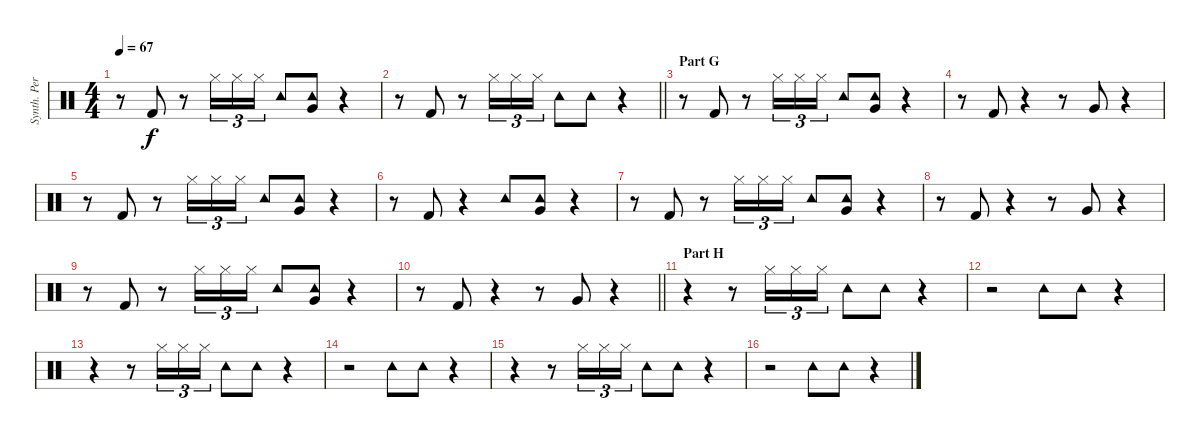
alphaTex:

\track ("Synth. Percussion" "Synth. Per") {instrument percussion}
\staff {score}
\articulation defaults
\ts (4 4)
\tempo 67
\clef neutral
\ks c
r.8{dy f} "Kick (hit) 2".8 r.8 "Hi-Hat (closed)".16{tu (3 2)} "Hi-Hat (closed)".16{tu (3 2)} "Hi-Hat (closed)".16{tu (3 2)} "Tambourine (hit)".8 ("Tambourine (hit)" "Very Low Tom (hit)").8 r.4 |
\barLineRight lightlight
r.8 "Kick (hit) 2".8 r.8 "Hi-Hat (closed)".16{tu (3 2)} "Hi-Hat (closed)".16{tu (3 2)} "Hi-Hat (closed)".16{tu (3 2)} "Tambourine (hit)".8 "Tambourine (hit)".8 r.4 |
\section ("" "Part G")
r.8 "Kick (hit) 2".8 r.8 "Hi-Hat (closed)".16{tu (3 2)} "Hi-Hat (closed)".16{tu (3 2)} "Hi-Hat (closed)".16{tu (3 2)} "Tambourine (hit)".8 ("Tambourine (hit)" "Very Low Tom (hit)").8 r.4 |
r.8 "Kick (hit) 2".8 r.4 r.8 "Very Low Tom (hit)".8 r.4 |
r.8 "Kick (hit) 2".8 r.8 "Hi-Hat (closed)".16{tu (3 2)} "Hi-Hat (closed)".16{tu (3 2)} "Hi-Hat (closed)".16{tu (3 2)} "Tambourine (hit)".8 ("Tambourine (hit)" "Very Low Tom (hit)").8 r.4 |
r.8 "Kick (hit) 2".8 r.4 "Tambourine (hit)".8 ("Tambourine (hit)" "Very Low Tom (hit)").8 r.4 |
r.8 "Kick (hit) 2".8 r.8 "Hi-Hat (closed)".16{tu (3 2)} "Hi-Hat (closed)".16{tu (3 2)} "Hi-Hat (closed)".16{tu (3 2)} "Tambourine (hit)".8 ("Tambourine (hit)" "Very Low Tom (hit)").8 r.4 |
r.8 "Kick (hit) 2".8 r.4 r.8 "Very Low Tom (hit)".8 r.4 |
r.8 "Kick (hit) 2".8 r.8 "Hi-Hat (closed)".16{tu (3 2)} "Hi-Hat (closed)".16{tu (3 2)} "Hi-Hat (closed)".16{tu (3 2)} "Tambourine (hit)".8 ("Tambourine (hit)" "Very Low Tom (hit)").8 r.4 |
\barLineRight lightlight
r.8 "Kick (hit) 2".8 r.4 r.8 "Very Low Tom (hit)".8 r.4 |
\section ("" "Part H")
r.4 r.8 "Hi-Hat (closed)".16{tu (3 2)} "Hi-Hat (closed)".16{tu (3 2)} "Hi-Hat (closed)".16{tu (3 2)} "Tambourine (hit)".8 "Tambourine (hit)".8 r.4 |
r.2 "Tambourine (hit)".8 "Tambourine (hit)".8 r.4 |
r.4 r.8 "Hi-Hat (closed)".16{tu (3 2)} "Hi-Hat (closed)".16{tu (3 2)} "Hi-Hat (closed)".16{tu (3 2)} "Tambourine (hit)".8 "Tambourine (hit)".8 r.4 |
r.2 "Tambourine (hit)".8 "Tambourine (hit)".8 r.4 |
r.4 r.8 "Hi-Hat (closed)".16{tu (3 2)} "Hi-Hat (closed)".16{tu (3 2)} "Hi-Hat (closed)".16{tu (3 2)} "Tambourine (hit)".8 "Tambourine (hit)".8 r.4 |
r.2 "Tambourine (hit)".8 "Tambourine (hit)".8 r.4
